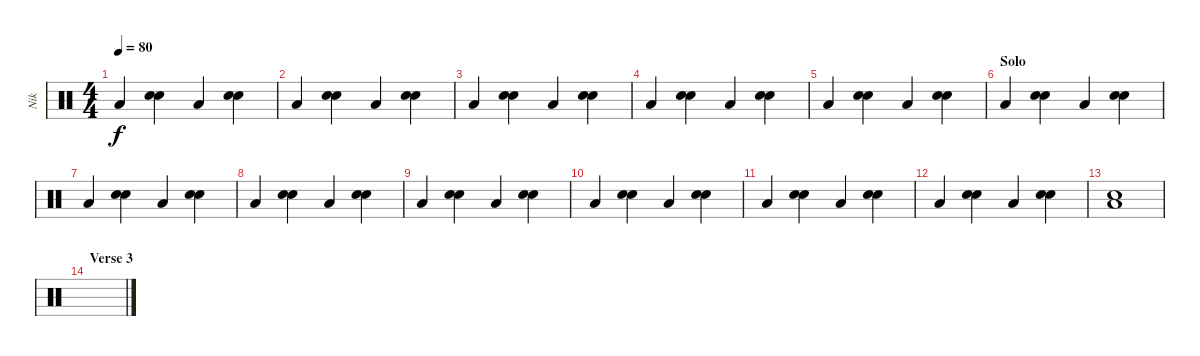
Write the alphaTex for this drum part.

\track ("Nik" "Nik") {instrument percussion}
\staff {score}
\articulation defaults
\ts (4 4)
\tempo 80
\clef neutral
\ks c "Low Floor Tom (hit)".4{dy f}
("Hand Clap (hit)" "Hand Clap (hit)").4 "Low Floor Tom (hit)".4 ("Hand Clap (hit)" "Hand Clap (hit)").4 |
"Low Floor Tom (hit)".4 ("Hand Clap (hit)" "Hand Clap (hit)").4 "Low Floor Tom (hit)".4 ("Hand Clap (hit)" "Hand Clap (hit)").4 |
"Low Floor Tom (hit)".4 ("Hand Clap (hit)" "Hand Clap (hit)").4 "Low Floor Tom (hit)".4 ("Hand Clap (hit)" "Hand Clap (hit)").4 |
"Low Floor Tom (hit)".4 ("Hand Clap (hit)" "Hand Clap (hit)").4 "Low Floor Tom (hit)".4 ("Hand Clap (hit)" "Hand Clap (hit)").4 |
"Low Floor Tom (hit)".4 ("Hand Clap (hit)" "Hand Clap (hit)").4 "Low Floor Tom (hit)".4 ("Hand Clap (hit)" "Hand Clap (hit)").4 |
\section ("" "Solo")
"Low Floor Tom (hit)".4 ("Hand Clap (hit)" "Hand Clap (hit)").4 "Low Floor Tom (hit)".4 ("Hand Clap (hit)" "Hand Clap (hit)").4 |
"Low Floor Tom (hit)".4 ("Hand Clap (hit)" "Hand Clap (hit)").4 "Low Floor Tom (hit)".4 ("Hand Clap (hit)" "Hand Clap (hit)").4 |
"Low Floor Tom (hit)".4 ("Hand Clap (hit)" "Hand Clap (hit)").4 "Low Floor Tom (hit)".4 ("Hand Clap (hit)" "Hand Clap (hit)").4 |
"Low Floor Tom (hit)".4 ("Hand Clap (hit)" "Hand Clap (hit)").4 "Low Floor Tom (hit)".4 ("Hand Clap (hit)" "Hand Clap (hit)").4 |
"Low Floor Tom (hit)".4 ("Hand Clap (hit)" "Hand Clap (hit)").4 "Low Floor Tom (hit)".4 ("Hand Clap (hit)" "Hand Clap (hit)").4 |
"Low Floor Tom (hit)".4 ("Hand Clap (hit)" "Hand Clap (hit)").4 "Low Floor Tom (hit)".4 ("Hand Clap (hit)" "Hand Clap (hit)").4 |
"Low Floor Tom (hit)".4 ("Hand Clap (hit)" "Hand Clap (hit)").4 "Low Floor Tom (hit)".4 ("Hand Clap (hit)" "Hand Clap (hit)").4 |
("Hand Clap (hit)" "Low Floor Tom (hit)").1 |
\section ("" "Verse 3")
